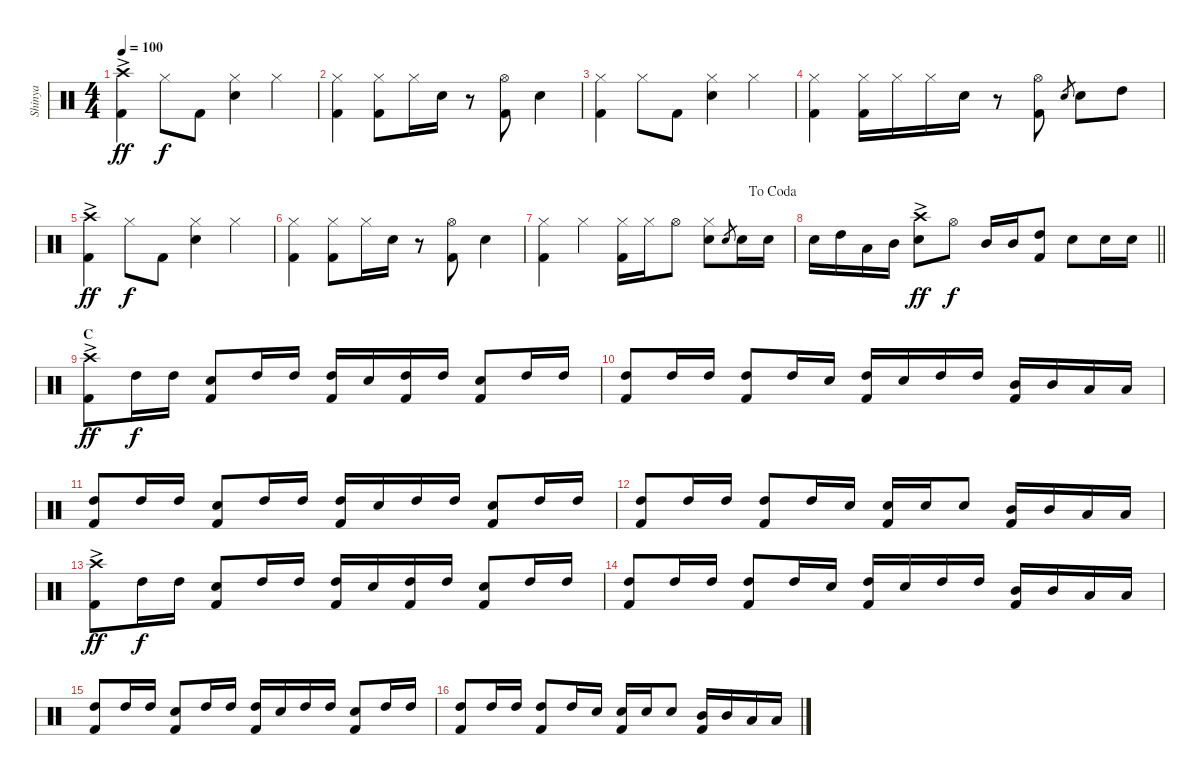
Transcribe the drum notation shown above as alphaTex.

\track ("Shinya" "Shinya") {instrument percussion}
\staff {score}
\articulation defaults
\ts (4 4)
\tempo 100
\clef neutral
\ks c
("Crash high (hit)"{ac} "Kick (hit) 2").4{dy ff} "Hi-Hat (closed)".8{dy f} "Kick (hit) 2".8 ("Hi-Hat (closed)" "Snare (hit) 2").4 "Hi-Hat (closed)".4 |
("Hi-Hat (closed)" "Kick (hit) 2").4 ("Hi-Hat (closed)" "Kick (hit) 2").8 "Hi-Hat (closed)".16 "Snare (hit) 2".16 r.8 ("Hi-Hat (open)" "Kick (hit) 2").8 "Snare (hit) 2".4 |
("Hi-Hat (closed)" "Kick (hit) 2").4 "Hi-Hat (closed)".8 "Kick (hit) 2".8 ("Hi-Hat (closed)" "Snare (hit) 2").4 "Hi-Hat (closed)".4 |
("Hi-Hat (closed)" "Kick (hit) 2").4 ("Hi-Hat (closed)" "Kick (hit) 2").16 "Hi-Hat (closed)".16 "Hi-Hat (closed)".16 "Snare (hit) 2".16 r.8 ("Hi-Hat (open)" "Kick (hit) 2").8 "Snare (hit) 2".8{gr} "Snare (hit) 2".8 "High Tom (hit)".8 |
("Crash high (hit)"{ac} "Kick (hit) 2").4{dy ff} "Hi-Hat (closed)".8{dy f} "Kick (hit) 2".8 ("Hi-Hat (closed)" "Snare (hit) 2").4 "Hi-Hat (closed)".4 |
("Hi-Hat (closed)" "Kick (hit) 2").4 ("Hi-Hat (closed)" "Kick (hit) 2").8 "Hi-Hat (closed)".16 "Snare (hit) 2".16 r.8 ("Hi-Hat (open)" "Kick (hit) 2").8 "Snare (hit) 2".4 |
\jump dacoda
("Hi-Hat (closed)" "Kick (hit) 2").4 "Hi-Hat (closed)".4 ("Hi-Hat (closed)" "Kick (hit) 2").16 "Hi-Hat (closed)".16 "Hi-Hat (open)".8 ("Hi-Hat (closed)" "Snare (hit) 2").8 "Snare (hit) 2".8{gr} "Snare (hit) 2".16 "Snare (hit) 2".16 |
\barLineRight lightlight "Snare (hit) 2".16 "High Tom (hit)".16 "Low Tom (hit)".16 "Mid Tom (hit)".16
("Crash high (hit)"{ac} "Snare (hit) 2").8{dy ff} "Hi-Hat (open)".8{dy f} "Mid Tom (hit)".16 "Mid Tom (hit)".16 ("High Tom (hit)" "Kick (hit) 2").8 "Snare (hit) 2".8 "Snare (hit) 2".16 "Snare (hit) 2".16 |
\section ("" "C")
("Crash high (hit)"{ac} "Kick (hit) 2").8{dy ff} "High Tom (hit)".16{dy f} "High Tom (hit)".16 ("Snare (hit) 2" "Kick (hit) 2").8 "High Tom (hit)".16 "High Tom (hit)".16 ("High Tom (hit)" "Kick (hit) 2").16 "Snare (hit) 2".16 ("High Tom (hit)" "Kick (hit) 2").16 "High Tom (hit)".16 ("Snare (hit) 2" "Kick (hit) 2").8 "High Tom (hit)".16 "High Tom (hit)".16 |
("High Tom (hit)" "Kick (hit) 2").8 "High Tom (hit)".16 "High Tom (hit)".16 ("High Tom (hit)" "Kick (hit) 2").8 "High Tom (hit)".16 "Snare (hit) 2".16 ("High Tom (hit)" "Kick (hit) 2").16 "Snare (hit) 2".16 "High Tom (hit)".16 "High Tom (hit)".16 ("Mid Tom (hit)" "Kick (hit) 2").16 "Mid Tom (hit)".16 "Low Tom (hit)".16 "Low Tom (hit)".16 |
("High Tom (hit)" "Kick (hit) 2").8 "High Tom (hit)".16 "High Tom (hit)".16 ("Snare (hit) 2" "Kick (hit) 2").8 "High Tom (hit)".16 "High Tom (hit)".16 ("High Tom (hit)" "Kick (hit) 2").16 "Snare (hit) 2".16 "High Tom (hit)".16 "High Tom (hit)".16 ("Snare (hit) 2" "Kick (hit) 2").8 "High Tom (hit)".16 "High Tom (hit)".16 |
("High Tom (hit)" "Kick (hit) 2").8 "High Tom (hit)".16 "High Tom (hit)".16 ("High Tom (hit)" "Kick (hit) 2").8 "High Tom (hit)".16 "Snare (hit) 2".16 ("Snare (hit) 2" "Kick (hit) 2").16 "Snare (hit) 2".16 "Snare (hit) 2".8 ("Mid Tom (hit)" "Kick (hit) 2").16 "Mid Tom (hit)".16 "Low Tom (hit)".16 "Low Tom (hit)".16 |
("Crash high (hit)"{ac} "Kick (hit) 2").8{dy ff} "High Tom (hit)".16{dy f} "High Tom (hit)".16 ("Snare (hit) 2" "Kick (hit) 2").8 "High Tom (hit)".16 "High Tom (hit)".16 ("High Tom (hit)" "Kick (hit) 2").16 "Snare (hit) 2".16 ("High Tom (hit)" "Kick (hit) 2").16 "High Tom (hit)".16 ("Snare (hit) 2" "Kick (hit) 2").8 "High Tom (hit)".16 "High Tom (hit)".16 |
("High Tom (hit)" "Kick (hit) 2").8 "High Tom (hit)".16 "High Tom (hit)".16 ("High Tom (hit)" "Kick (hit) 2").8 "High Tom (hit)".16 "Snare (hit) 2".16 ("High Tom (hit)" "Kick (hit) 2").16 "Snare (hit) 2".16 "High Tom (hit)".16 "High Tom (hit)".16 ("Mid Tom (hit)" "Kick (hit) 2").16 "Mid Tom (hit)".16 "Low Tom (hit)".16 "Low Tom (hit)".16 |
("High Tom (hit)" "Kick (hit) 2").8 "High Tom (hit)".16 "High Tom (hit)".16 ("Snare (hit) 2" "Kick (hit) 2").8 "High Tom (hit)".16 "High Tom (hit)".16 ("High Tom (hit)" "Kick (hit) 2").16 "Snare (hit) 2".16 "High Tom (hit)".16 "High Tom (hit)".16 ("Snare (hit) 2" "Kick (hit) 2").8 "High Tom (hit)".16 "High Tom (hit)".16 |
("High Tom (hit)" "Kick (hit) 2").8 "High Tom (hit)".16 "High Tom (hit)".16 ("High Tom (hit)" "Kick (hit) 2").8 "High Tom (hit)".16 "Snare (hit) 2".16 ("Snare (hit) 2" "Kick (hit) 2").16 "Snare (hit) 2".16 "Snare (hit) 2".8 ("Mid Tom (hit)" "Kick (hit) 2").16 "Mid Tom (hit)".16 "Low Tom (hit)".16 "Low Tom (hit)".16
